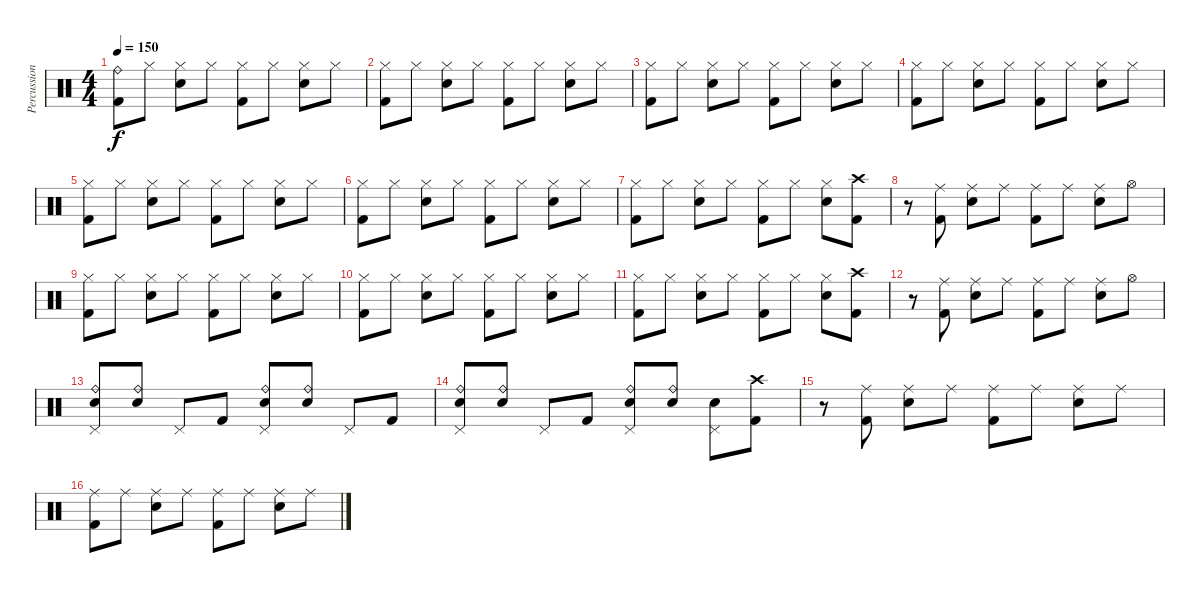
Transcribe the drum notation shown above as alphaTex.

\track ("Percussion" "Percussion") {instrument percussion}
\staff {score}
\articulation defaults
\ts (4 4)
\tempo 150
\clef neutral
\ks c
("Ride (bell)" "Kick (hit) 2").8{dy f} "Hi-Hat (closed)".8 ("Hi-Hat (closed)" "Electric Snare (hit)").8 "Hi-Hat (closed)".8 ("Hi-Hat (closed)" "Kick (hit) 2").8 "Hi-Hat (closed)".8 ("Hi-Hat (closed)" "Electric Snare (hit)").8 "Hi-Hat (closed)".8 |
("Hi-Hat (closed)" "Kick (hit) 2").8 "Hi-Hat (closed)".8 ("Hi-Hat (closed)" "Electric Snare (hit)").8 "Hi-Hat (closed)".8 ("Hi-Hat (closed)" "Kick (hit) 2").8 "Hi-Hat (closed)".8 ("Hi-Hat (closed)" "Electric Snare (hit)").8 "Hi-Hat (closed)".8 |
("Hi-Hat (closed)" "Kick (hit) 2").8 "Hi-Hat (closed)".8 ("Hi-Hat (closed)" "Electric Snare (hit)").8 "Hi-Hat (closed)".8 ("Hi-Hat (closed)" "Kick (hit) 2").8 "Hi-Hat (closed)".8 ("Hi-Hat (closed)" "Electric Snare (hit)").8 "Hi-Hat (closed)".8 |
("Hi-Hat (closed)" "Kick (hit) 2").8 "Hi-Hat (closed)".8 ("Hi-Hat (closed)" "Electric Snare (hit)").8 "Hi-Hat (closed)".8 ("Hi-Hat (closed)" "Kick (hit) 2").8 "Hi-Hat (closed)".8 ("Hi-Hat (closed)" "Electric Snare (hit)").8 "Hi-Hat (closed)".8 |
("Hi-Hat (closed)" "Kick (hit) 2").8 "Hi-Hat (closed)".8 ("Hi-Hat (closed)" "Electric Snare (hit)").8 "Hi-Hat (closed)".8 ("Hi-Hat (closed)" "Kick (hit) 2").8 "Hi-Hat (closed)".8 ("Hi-Hat (closed)" "Electric Snare (hit)").8 "Hi-Hat (closed)".8 |
("Hi-Hat (closed)" "Kick (hit) 2").8 "Hi-Hat (closed)".8 ("Hi-Hat (closed)" "Electric Snare (hit)").8 "Hi-Hat (closed)".8 ("Hi-Hat (closed)" "Kick (hit) 2").8 "Hi-Hat (closed)".8 ("Hi-Hat (closed)" "Electric Snare (hit)").8 "Hi-Hat (closed)".8 |
("Hi-Hat (closed)" "Kick (hit) 2").8 "Hi-Hat (closed)".8 ("Hi-Hat (closed)" "Electric Snare (hit)").8 "Hi-Hat (closed)".8 ("Hi-Hat (closed)" "Kick (hit) 2").8 "Hi-Hat (closed)".8 ("Hi-Hat (closed)" "Electric Snare (hit)").8 ("Crash high (hit)" "Kick (hit) 2").8 |
r.8 ("Ride (middle)" "Kick (hit) 2").8 ("Ride (middle)" "Electric Snare (hit)").8 "Ride (middle)".8 ("Ride (middle)" "Kick (hit) 2").8 "Ride (middle)".8 ("Ride (middle)" "Electric Snare (hit)").8 "Hi-Hat (open)".8 |
("Hi-Hat (closed)" "Kick (hit) 2").8 "Hi-Hat (closed)".8 ("Hi-Hat (closed)" "Electric Snare (hit)").8 "Hi-Hat (closed)".8 ("Hi-Hat (closed)" "Kick (hit) 2").8 "Hi-Hat (closed)".8 ("Hi-Hat (closed)" "Electric Snare (hit)").8 "Hi-Hat (closed)".8 |
("Hi-Hat (closed)" "Kick (hit) 2").8 "Hi-Hat (closed)".8 ("Hi-Hat (closed)" "Electric Snare (hit)").8 "Hi-Hat (closed)".8 ("Hi-Hat (closed)" "Kick (hit) 2").8 "Hi-Hat (closed)".8 ("Hi-Hat (closed)" "Electric Snare (hit)").8 "Hi-Hat (closed)".8 |
("Hi-Hat (closed)" "Kick (hit) 2").8 "Hi-Hat (closed)".8 ("Hi-Hat (closed)" "Electric Snare (hit)").8 "Hi-Hat (closed)".8 ("Hi-Hat (closed)" "Kick (hit) 2").8 "Hi-Hat (closed)".8 ("Hi-Hat (closed)" "Electric Snare (hit)").8 ("Crash high (hit)" "Kick (hit) 2").8 |
r.8 ("Ride (middle)" "Kick (hit) 2").8 ("Ride (middle)" "Electric Snare (hit)").8 "Ride (middle)".8 ("Ride (middle)" "Kick (hit) 2").8 "Ride (middle)".8 ("Ride (middle)" "Electric Snare (hit)").8 "Hi-Hat (open)".8 |
("Ride (bell)" "Electric Snare (hit)" "Pedal Hi-Hat (hit)").8 ("Ride (bell)" "Electric Snare (hit)").8 "Pedal Hi-Hat (hit)".8 "Kick (hit) 2".8 ("Ride (bell)" "Electric Snare (hit)" "Pedal Hi-Hat (hit)").8 ("Ride (bell)" "Electric Snare (hit)").8 "Pedal Hi-Hat (hit)".8 "Kick (hit) 2".8 |
("Ride (bell)" "Electric Snare (hit)" "Pedal Hi-Hat (hit)").8 ("Ride (bell)" "Electric Snare (hit)").8 "Pedal Hi-Hat (hit)".8 "Kick (hit) 2".8 ("Ride (bell)" "Electric Snare (hit)" "Pedal Hi-Hat (hit)").8 ("Ride (bell)" "Electric Snare (hit)").8 ("Electric Snare (hit)" "Pedal Hi-Hat (hit)").8 ("Crash high (hit)" "Kick (hit) 2").8 |
r.8 ("Ride (middle)" "Kick (hit) 2").8 ("Ride (middle)" "Electric Snare (hit)").8 "Ride (middle)".8 ("Ride (middle)" "Kick (hit) 2").8 "Ride (middle)".8 ("Ride (middle)" "Electric Snare (hit)").8 "Ride (middle)".8 |
("Ride (middle)" "Kick (hit) 2").8 "Ride (middle)".8 ("Ride (middle)" "Electric Snare (hit)").8 "Ride (middle)".8 ("Ride (middle)" "Kick (hit) 2").8 "Ride (middle)".8 ("Ride (middle)" "Electric Snare (hit)").8 "Ride (middle)".8
